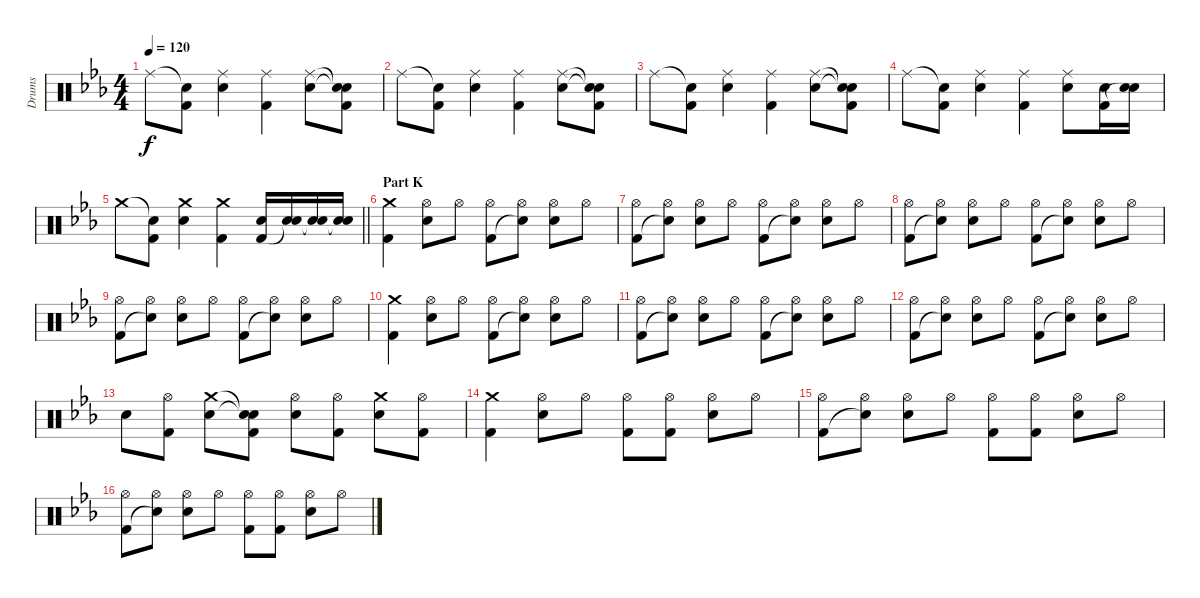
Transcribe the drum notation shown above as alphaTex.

\track ("Drums" "Drums") {instrument percussion}
\staff {score}
\articulation defaults
\ts (4 4)
\tempo 120
\clef neutral
\ks eb "Ride (middle)".8{dy f}
("Snare (hit)"{t} "Kick (hit) 2").8 ("Ride (middle)" "Electric Snare (hit)").4 ("Ride (middle)" "Kick (hit) 2").4 ("Ride (middle)" "Electric Snare (hit)").8 ("Snare (hit)"{t} "Snare (hit)"{t} "Kick (hit) 2").8 |
"Ride (middle)".8 ("Snare (hit)"{t} "Kick (hit) 2").8 ("Ride (middle)" "Electric Snare (hit)").4 ("Ride (middle)" "Kick (hit) 2").4 ("Ride (middle)" "Electric Snare (hit)").8 ("Snare (hit)"{t} "Snare (hit)"{t} "Kick (hit) 2").8 |
"Ride (middle)".8 ("Snare (hit)"{t} "Kick (hit) 2").8 ("Ride (middle)" "Electric Snare (hit)").4 ("Ride (middle)" "Kick (hit) 2").4 ("Ride (middle)" "Electric Snare (hit)").8 ("Snare (hit)"{t} "Snare (hit)"{t} "Kick (hit) 2").8 |
"Ride (middle)".8 ("Snare (hit)"{t} "Kick (hit) 2").8 ("Ride (middle)" "Electric Snare (hit)").4 ("Ride (middle)" "Kick (hit) 2").4 ("Ride (middle)" "Electric Snare (hit)").8 ("Electric Snare (hit)" "Kick (hit) 2").16 ("Electric Snare (hit)" "Snare (hit)"{t}).16 |
\barLineRight lightlight "Crash medium (hit)".8
("Snare (hit)"{t} "Kick (hit) 2").8 ("Crash medium (hit)" "Electric Snare (hit)").4 ("Crash medium (hit)" "Kick (hit) 2").4 ("Electric Snare (hit)" "Kick (hit) 2").16 ("Electric Snare (hit)" "Snare (hit)"{t}).16 ("Electric Snare (hit)" "Snare (hit)"{t}).16 ("Electric Snare (hit)" "Snare (hit)"{t}).16 |
\section ("" "Part K")
("Crash medium (hit)" "Kick (hit) 2").4 ("Hi-Hat (open)" "Electric Snare (hit)").8 "Hi-Hat (open)".8 ("Hi-Hat (open)" "Kick (hit) 2").8 ("Hi-Hat (open)" "Snare (hit)"{t}).8 ("Hi-Hat (open)" "Electric Snare (hit)").8 "Hi-Hat (open)".8 |
("Hi-Hat (open)" "Kick (hit) 2").8 ("Hi-Hat (open)" "Snare (hit)"{t}).8 ("Hi-Hat (open)" "Electric Snare (hit)").8 "Hi-Hat (open)".8 ("Hi-Hat (open)" "Kick (hit) 2").8 ("Hi-Hat (open)" "Snare (hit)"{t}).8 ("Hi-Hat (open)" "Electric Snare (hit)").8 "Hi-Hat (open)".8 |
("Hi-Hat (open)" "Kick (hit) 2").8 ("Hi-Hat (open)" "Snare (hit)"{t}).8 ("Hi-Hat (open)" "Electric Snare (hit)").8 "Hi-Hat (open)".8 ("Hi-Hat (open)" "Kick (hit) 2").8 ("Hi-Hat (open)" "Snare (hit)"{t}).8 ("Hi-Hat (open)" "Electric Snare (hit)").8 "Hi-Hat (open)".8 |
("Hi-Hat (open)" "Kick (hit) 2").8 ("Hi-Hat (open)" "Snare (hit)"{t}).8 ("Hi-Hat (open)" "Electric Snare (hit)").8 "Hi-Hat (open)".8 ("Hi-Hat (open)" "Kick (hit) 2").8 ("Hi-Hat (open)" "Snare (hit)"{t}).8 ("Hi-Hat (open)" "Electric Snare (hit)").8 "Hi-Hat (open)".8 |
("Crash medium (hit)" "Kick (hit) 2").4 ("Hi-Hat (open)" "Electric Snare (hit)").8 "Hi-Hat (open)".8 ("Hi-Hat (open)" "Kick (hit) 2").8 ("Hi-Hat (open)" "Snare (hit)"{t}).8 ("Hi-Hat (open)" "Electric Snare (hit)").8 "Hi-Hat (open)".8 |
("Hi-Hat (open)" "Kick (hit) 2").8 ("Hi-Hat (open)" "Snare (hit)"{t}).8 ("Hi-Hat (open)" "Electric Snare (hit)").8 "Hi-Hat (open)".8 ("Hi-Hat (open)" "Kick (hit) 2").8 ("Hi-Hat (open)" "Snare (hit)"{t}).8 ("Hi-Hat (open)" "Electric Snare (hit)").8 "Hi-Hat (open)".8 |
("Hi-Hat (open)" "Kick (hit) 2").8 ("Hi-Hat (open)" "Snare (hit)"{t}).8 ("Hi-Hat (open)" "Electric Snare (hit)").8 "Hi-Hat (open)".8 ("Hi-Hat (open)" "Kick (hit) 2").8 ("Hi-Hat (open)" "Snare (hit)"{t}).8 ("Hi-Hat (open)" "Electric Snare (hit)").8 "Hi-Hat (open)".8 |
"Electric Snare (hit)".8 ("Hi-Hat (open)" "Kick (hit) 2").8 ("Crash medium (hit)" "Electric Snare (hit)").8 ("Snare (hit)"{t} "Snare (hit)"{t} "Kick (hit) 2").8 ("Hi-Hat (open)" "Electric Snare (hit)").8 ("Hi-Hat (open)" "Kick (hit) 2").8 ("Crash medium (hit)" "Electric Snare (hit)").8 ("Hi-Hat (open)" "Kick (hit) 2").8 |
("Crash medium (hit)" "Kick (hit) 2").4 ("Hi-Hat (open)" "Electric Snare (hit)").8 "Hi-Hat (open)".8 ("Hi-Hat (open)" "Kick (hit) 2").8 ("Hi-Hat (open)" "Kick (hit) 2").8 ("Hi-Hat (open)" "Electric Snare (hit)").8 "Hi-Hat (open)".8 |
("Hi-Hat (open)" "Kick (hit) 2").8 ("Hi-Hat (open)" "Snare (hit)"{t}).8 ("Hi-Hat (open)" "Electric Snare (hit)").8 "Hi-Hat (open)".8 ("Hi-Hat (open)" "Kick (hit) 2").8 ("Hi-Hat (open)" "Kick (hit) 2").8 ("Hi-Hat (open)" "Electric Snare (hit)").8 "Hi-Hat (open)".8 |
("Hi-Hat (open)" "Kick (hit) 2").8 ("Hi-Hat (open)" "Snare (hit)"{t}).8 ("Hi-Hat (open)" "Electric Snare (hit)").8 "Hi-Hat (open)".8 ("Hi-Hat (open)" "Kick (hit) 2").8 ("Hi-Hat (open)" "Kick (hit) 2").8 ("Hi-Hat (open)" "Electric Snare (hit)").8 "Hi-Hat (open)".8
